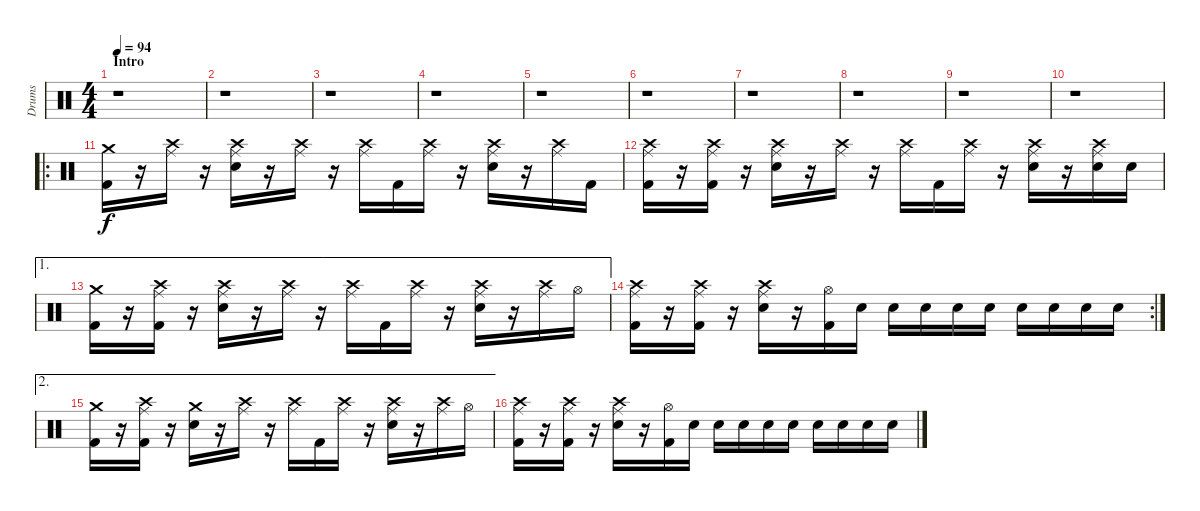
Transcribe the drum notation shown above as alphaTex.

\track ("Drums" "Drums") {instrument percussion}
\staff {score}
\articulation defaults
\ts (4 4)
\section ("" "Intro")
\tempo 94
\clef neutral
\ks c
r.1{dy f} |
r.1 |
r.1 |
r.1 |
r.1 |
r.1 |
r.1 |
r.1 |
r.1 |
r.1 |
\ro
("Crash medium (hit)" "Kick (hit) 2").16 r.16 ("Ride (middle)" "Crash high (hit)").16 r.16 ("Ride (middle)" "Crash high (hit)" "Electric Snare (hit)").16 r.16 ("Ride (middle)" "Crash high (hit)").16 r.16 ("Ride (middle)" "Crash high (hit)").16 "Kick (hit) 2".16 ("Ride (middle)" "Crash high (hit)").16 r.16 ("Ride (middle)" "Crash high (hit)" "Electric Snare (hit)").16 r.16 ("Ride (middle)" "Crash high (hit)").16 "Kick (hit) 2".16 |
("Ride (middle)" "Crash high (hit)" "Kick (hit) 2").16 r.16 ("Ride (middle)" "Crash high (hit)" "Kick (hit) 2").16 r.16 ("Ride (middle)" "Crash high (hit)" "Electric Snare (hit)").16 r.16 ("Ride (middle)" "Crash high (hit)").16 r.16 ("Ride (middle)" "Crash high (hit)").16 "Kick (hit) 2".16 ("Ride (middle)" "Crash high (hit)").16 r.16 ("Ride (middle)" "Crash high (hit)" "Electric Snare (hit)").16 r.16 ("Ride (middle)" "Crash high (hit)" "Electric Snare (hit)").16 "Electric Snare (hit)".16 |
\ae 1
("Crash medium (hit)" "Kick (hit) 2").16 r.16 ("Ride (middle)" "Crash high (hit)" "Kick (hit) 2").16 r.16 ("Ride (middle)" "Crash high (hit)" "Electric Snare (hit)").16 r.16 ("Ride (middle)" "Crash high (hit)").16 r.16 ("Ride (middle)" "Crash high (hit)").16 "Kick (hit) 2".16 ("Ride (middle)" "Crash high (hit)").16 r.16 ("Ride (middle)" "Crash high (hit)" "Electric Snare (hit)").16 r.16 ("Ride (middle)" "Crash high (hit)").16 "Hi-Hat (open)".16 |
\rc 2
("Ride (middle)" "Crash high (hit)" "Kick (hit) 2").16 r.16 ("Ride (middle)" "Crash high (hit)" "Kick (hit) 2").16 r.16 ("Ride (middle)" "Crash high (hit)" "Electric Snare (hit)").16 r.16 ("Hi-Hat (open)" "Kick (hit) 2").16 "Electric Snare (hit)".16 "Electric Snare (hit)".16 "Electric Snare (hit)".16 "Electric Snare (hit)".16 "Electric Snare (hit)".16 "Electric Snare (hit)".16 "Electric Snare (hit)".16 "Electric Snare (hit)".16 "Electric Snare (hit)".16 |
\ae 2
("Crash medium (hit)" "Kick (hit) 2").16 r.16 ("Ride (middle)" "Crash high (hit)" "Kick (hit) 2").16 r.16 ("Crash medium (hit)" "Electric Snare (hit)").16 r.16 ("Ride (middle)" "Crash high (hit)").16 r.16 ("Ride (middle)" "Crash high (hit)").16 "Kick (hit) 2".16 ("Ride (middle)" "Crash high (hit)").16 r.16 ("Ride (middle)" "Crash high (hit)" "Electric Snare (hit)").16 r.16 ("Ride (middle)" "Crash high (hit)").16 "Hi-Hat (open)".16 |
("Ride (middle)" "Crash high (hit)" "Kick (hit) 2").16 r.16 ("Ride (middle)" "Crash high (hit)" "Kick (hit) 2").16 r.16 ("Ride (middle)" "Crash high (hit)" "Electric Snare (hit)").16 r.16 ("Hi-Hat (open)" "Kick (hit) 2").16 "Electric Snare (hit)".16 "Electric Snare (hit)".16 "Electric Snare (hit)".16 "Electric Snare (hit)".16 "Electric Snare (hit)".16 "Electric Snare (hit)".16 "Electric Snare (hit)".16 "Electric Snare (hit)".16 "Electric Snare (hit)".16
